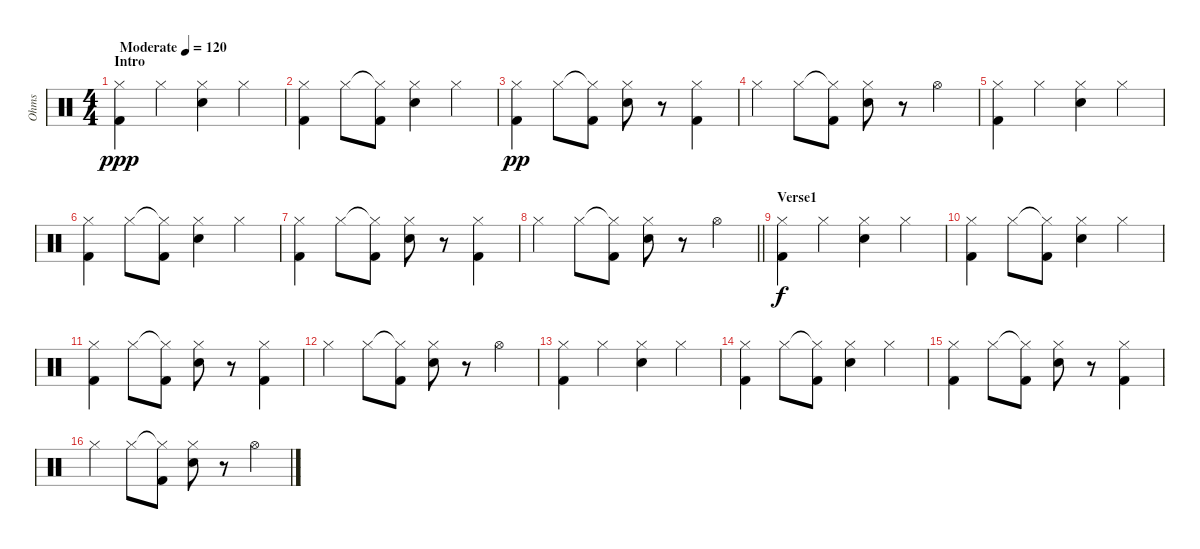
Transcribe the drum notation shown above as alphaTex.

\track ("Ohms" "Ohms") {instrument percussion}
\staff {score}
\articulation defaults
\ts (4 4)
\section ("" "Intro")
\tempo (120 "Moderate")
\clef neutral
\ks c
("Hi-Hat (closed)" "Kick (hit) 2").4{dy ppp} "Hi-Hat (closed)".4 ("Hi-Hat (closed)" "Snare (hit) 2").4 "Hi-Hat (closed)".4 |
("Hi-Hat (closed)" "Kick (hit) 2").4 "Hi-Hat (closed)".8 ("Hi-Hat (closed)"{t} "Kick (hit) 2").8 ("Hi-Hat (closed)" "Snare (hit) 2").4 "Hi-Hat (closed)".4 |
("Hi-Hat (closed)" "Kick (hit) 2").4{dy pp} "Hi-Hat (closed)".8 ("Hi-Hat (closed)"{t} "Kick (hit) 2").8 ("Hi-Hat (closed)" "Snare (hit) 2").8 r.8 ("Hi-Hat (closed)" "Kick (hit) 2").4 |
"Hi-Hat (closed)".4 "Hi-Hat (closed)".8 ("Hi-Hat (closed)"{t} "Kick (hit) 2").8 ("Hi-Hat (closed)" "Snare (hit) 2").8 r.8 "Hi-Hat (open)".4 |
("Hi-Hat (closed)" "Kick (hit) 2").4 "Hi-Hat (closed)".4 ("Hi-Hat (closed)" "Snare (hit) 2").4 "Hi-Hat (closed)".4 |
("Hi-Hat (closed)" "Kick (hit) 2").4 "Hi-Hat (closed)".8 ("Hi-Hat (closed)"{t} "Kick (hit) 2").8 ("Hi-Hat (closed)" "Snare (hit) 2").4 "Hi-Hat (closed)".4 |
("Hi-Hat (closed)" "Kick (hit) 2").4 "Hi-Hat (closed)".8 ("Hi-Hat (closed)"{t} "Kick (hit) 2").8 ("Hi-Hat (closed)" "Snare (hit) 2").8 r.8 ("Hi-Hat (closed)" "Kick (hit) 2").4 |
\barLineRight lightlight "Hi-Hat (closed)".4 "Hi-Hat (closed)".8
("Hi-Hat (closed)"{t} "Kick (hit) 2").8 ("Hi-Hat (closed)" "Snare (hit) 2").8 r.8 "Hi-Hat (open)".4 |
\section ("" "Verse1")
("Hi-Hat (closed)" "Kick (hit) 2").4{dy f} "Hi-Hat (closed)".4 ("Hi-Hat (closed)" "Snare (hit) 2").4 "Hi-Hat (closed)".4 |
("Hi-Hat (closed)" "Kick (hit) 2").4 "Hi-Hat (closed)".8 ("Hi-Hat (closed)"{t} "Kick (hit) 2").8 ("Hi-Hat (closed)" "Snare (hit) 2").4 "Hi-Hat (closed)".4 |
("Hi-Hat (closed)" "Kick (hit) 2").4 "Hi-Hat (closed)".8 ("Hi-Hat (closed)"{t} "Kick (hit) 2").8 ("Hi-Hat (closed)" "Snare (hit) 2").8 r.8 ("Hi-Hat (closed)" "Kick (hit) 2").4 |
"Hi-Hat (closed)".4 "Hi-Hat (closed)".8 ("Hi-Hat (closed)"{t} "Kick (hit) 2").8 ("Hi-Hat (closed)" "Snare (hit) 2").8 r.8 "Hi-Hat (open)".4 |
("Hi-Hat (closed)" "Kick (hit) 2").4 "Hi-Hat (closed)".4 ("Hi-Hat (closed)" "Snare (hit) 2").4 "Hi-Hat (closed)".4 |
("Hi-Hat (closed)" "Kick (hit) 2").4 "Hi-Hat (closed)".8 ("Hi-Hat (closed)"{t} "Kick (hit) 2").8 ("Hi-Hat (closed)" "Snare (hit) 2").4 "Hi-Hat (closed)".4 |
("Hi-Hat (closed)" "Kick (hit) 2").4 "Hi-Hat (closed)".8 ("Hi-Hat (closed)"{t} "Kick (hit) 2").8 ("Hi-Hat (closed)" "Snare (hit) 2").8 r.8 ("Hi-Hat (closed)" "Kick (hit) 2").4 |
"Hi-Hat (closed)".4 "Hi-Hat (closed)".8 ("Hi-Hat (closed)"{t} "Kick (hit) 2").8 ("Hi-Hat (closed)" "Snare (hit) 2").8 r.8 "Hi-Hat (open)".4
